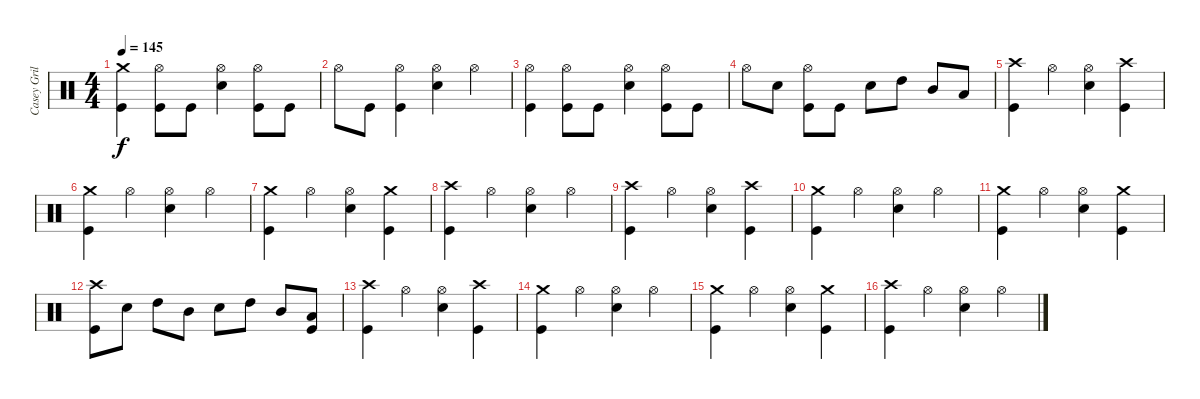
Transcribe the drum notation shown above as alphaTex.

\track ("Casey Grillo" "Casey Gril") {instrument percussion}
\staff {score}
\articulation defaults
\ts (4 4)
\tempo 145
\clef neutral
\ks c
("Crash medium (hit)" "Kick (hit)").4{dy f} ("Hi-Hat (open)" "Kick (hit)").8 "Kick (hit)".8 ("Hi-Hat (open)" "Snare (hit) 2").4 ("Hi-Hat (open)" "Kick (hit)").8 "Kick (hit)".8 |
"Hi-Hat (open)".8 "Kick (hit)".8 ("Hi-Hat (open)" "Kick (hit)").4 ("Hi-Hat (open)" "Snare (hit) 2").4 "Hi-Hat (open)".4 |
("Hi-Hat (open)" "Kick (hit)").4 ("Hi-Hat (open)" "Kick (hit)").8 "Kick (hit)".8 ("Hi-Hat (open)" "Snare (hit) 2").4 ("Hi-Hat (open)" "Kick (hit)").8 "Kick (hit)".8 |
"Hi-Hat (open)".8 "Snare (hit) 2".8 ("Hi-Hat (open)" "Kick (hit)").8 "Kick (hit)".8 "Snare (hit) 2".8 "High Tom (hit)".8 "Mid Tom (hit)".8 "Low Tom (hit)".8 |
("Crash high (hit)" "Kick (hit)").4 "Hi-Hat (open)".4 ("Hi-Hat (open)" "Snare (hit) 2").4 ("Crash high (hit)" "Kick (hit)").4 |
("Crash medium (hit)" "Kick (hit)").4 "Hi-Hat (open)".4 ("Hi-Hat (open)" "Snare (hit) 2").4 "Hi-Hat (open)".4 |
("Crash medium (hit)" "Kick (hit)").4 "Hi-Hat (open)".4 ("Hi-Hat (open)" "Snare (hit) 2").4 ("Crash medium (hit)" "Kick (hit)").4 |
("Crash high (hit)" "Kick (hit)").4 "Hi-Hat (open)".4 ("Hi-Hat (open)" "Snare (hit) 2").4 "Hi-Hat (open)".4 |
("Crash high (hit)" "Kick (hit)").4 "Hi-Hat (open)".4 ("Hi-Hat (open)" "Snare (hit) 2").4 ("Crash high (hit)" "Kick (hit)").4 |
("Crash medium (hit)" "Kick (hit)").4 "Hi-Hat (open)".4 ("Hi-Hat (open)" "Snare (hit) 2").4 "Hi-Hat (open)".4 |
("Crash medium (hit)" "Kick (hit)").4 "Hi-Hat (open)".4 ("Hi-Hat (open)" "Snare (hit) 2").4 ("Crash medium (hit)" "Kick (hit)").4 |
("Crash high (hit)" "Kick (hit)").8 "Snare (hit) 2".8 "High Tom (hit)".8 "Mid Tom (hit)".8 "Snare (hit) 2".8 "High Tom (hit)".8 "Mid Tom (hit)".8 ("Low Tom (hit)" "Kick (hit)").8 |
("Crash high (hit)" "Kick (hit)").4 "Hi-Hat (open)".4 ("Hi-Hat (open)" "Snare (hit) 2").4 ("Crash high (hit)" "Kick (hit)").4 |
("Crash medium (hit)" "Kick (hit)").4 "Hi-Hat (open)".4 ("Hi-Hat (open)" "Snare (hit) 2").4 "Hi-Hat (open)".4 |
("Crash medium (hit)" "Kick (hit)").4 "Hi-Hat (open)".4 ("Hi-Hat (open)" "Snare (hit) 2").4 ("Crash medium (hit)" "Kick (hit)").4 |
("Crash high (hit)" "Kick (hit)").4 "Hi-Hat (open)".4 ("Hi-Hat (open)" "Snare (hit) 2").4 "Hi-Hat (open)".4
